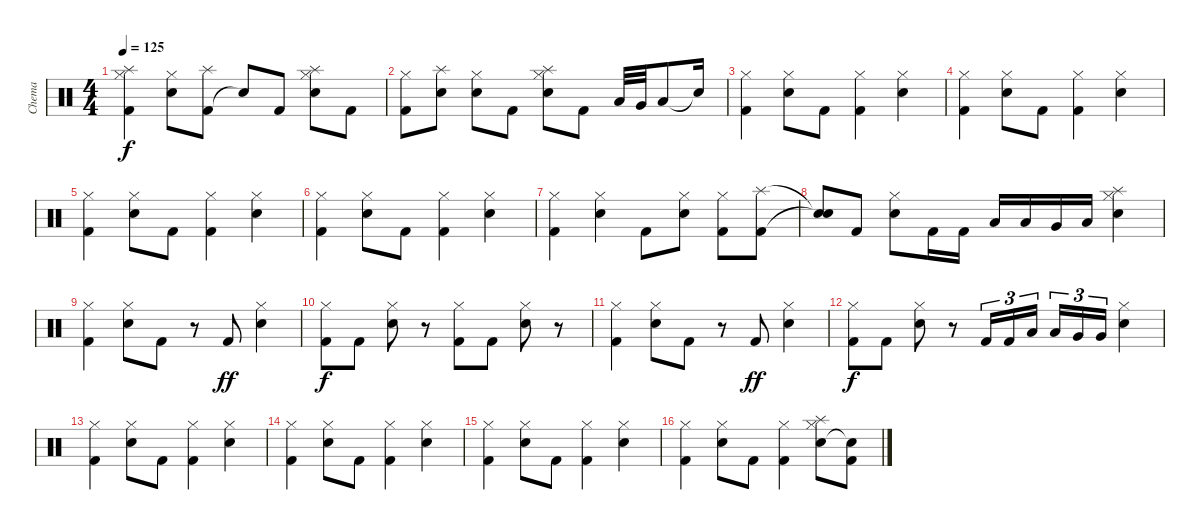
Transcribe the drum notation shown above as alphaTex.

\track ("Chema" "Chema") {instrument percussion}
\staff {score}
\articulation defaults
\ts (4 4)
\tempo 125
\clef neutral
\ks c
("Hi-Hat (closed)" "Kick (hit) 2" "Splash (hit)").4{dy f} ("Hi-Hat (closed)" "Snare (hit) 2").8 ("Kick (hit) 2" "Splash (hit)").8 "Snare (hit)"{t}.8 "Kick (hit) 2".8 ("Hi-Hat (closed)" "Snare (hit) 2" "Splash (hit)").8 "Kick (hit) 2".8 |
("Hi-Hat (closed)" "Kick (hit) 2").8 ("Snare (hit) 2" "Splash (hit)").8 ("Hi-Hat (closed)" "Snare (hit) 2").8 "Kick (hit) 2".8 ("Hi-Hat (closed)" "Snare (hit) 2" "Splash (hit)").8 "Kick (hit) 2".8 "Low Tom (hit)".32 "Very Low Tom (hit)".32 "Low Floor Tom (hit)".8 "Snare (hit)"{t}.16 |
("Hi-Hat (closed)" "Kick (hit) 2").4 ("Hi-Hat (closed)" "Snare (hit) 2").8 "Kick (hit) 2".8 ("Hi-Hat (closed)" "Kick (hit) 2").4 ("Hi-Hat (closed)" "Snare (hit) 2").4 |
("Hi-Hat (closed)" "Kick (hit) 2").4 ("Hi-Hat (closed)" "Snare (hit) 2").8 "Kick (hit) 2".8 ("Hi-Hat (closed)" "Kick (hit) 2").4 ("Hi-Hat (closed)" "Snare (hit) 2").4 |
("Hi-Hat (closed)" "Kick (hit) 2").4 ("Hi-Hat (closed)" "Snare (hit) 2").8 "Kick (hit) 2".8 ("Hi-Hat (closed)" "Kick (hit) 2").4 ("Hi-Hat (closed)" "Snare (hit) 2").4 |
("Hi-Hat (closed)" "Kick (hit) 2").4 ("Hi-Hat (closed)" "Snare (hit) 2").8 "Kick (hit) 2".8 ("Hi-Hat (closed)" "Kick (hit) 2").4 ("Hi-Hat (closed)" "Snare (hit) 2").4 |
("Hi-Hat (closed)" "Kick (hit) 2").4 ("Hi-Hat (closed)" "Snare (hit) 2").4 "Kick (hit) 2".8 ("Hi-Hat (closed)" "Snare (hit) 2").8 ("Hi-Hat (closed)" "Kick (hit) 2").8 ("Kick (hit) 2" "Splash (hit)").8 |
("Snare (hit)"{t} "Snare (hit)"{t}).8 "Kick (hit) 2".8 ("Hi-Hat (closed)" "Snare (hit) 2").8 "Kick (hit) 2".16 "Kick (hit) 2".16 "Low Tom (hit)".16 "Low Tom (hit)".16 "Very Low Tom (hit)".16 "Low Floor Tom (hit)".16 ("Hi-Hat (closed)" "Snare (hit) 2" "Splash (hit)").4 |
("Hi-Hat (closed)" "Kick (hit) 2").4 ("Hi-Hat (closed)" "Snare (hit) 2").8 "Kick (hit) 2".8 r.8 "Kick (hit) 2".8{dy ff} ("Hi-Hat (closed)" "Snare (hit) 2").4 |
("Hi-Hat (closed)" "Kick (hit) 2").8{dy f} "Kick (hit) 2".8 ("Hi-Hat (closed)" "Snare (hit) 2").8 r.8 ("Hi-Hat (closed)" "Kick (hit) 2").8 "Kick (hit) 2".8 ("Hi-Hat (closed)" "Snare (hit) 2").8 r.8 |
("Hi-Hat (closed)" "Kick (hit) 2").4 ("Hi-Hat (closed)" "Snare (hit) 2").8 "Kick (hit) 2".8 r.8 "Kick (hit) 2".8{dy ff} ("Hi-Hat (closed)" "Snare (hit) 2").4 |
("Hi-Hat (closed)" "Kick (hit) 2").8{dy f} "Kick (hit) 2".8 ("Hi-Hat (closed)" "Snare (hit) 2").8 r.8 "Kick (hit) 2".16{tu (3 2)} "Kick (hit) 2".16{tu (3 2)} "Low Tom (hit)".16{tu (3 2)} "Low Tom (hit)".16{tu (3 2)} "Very Low Tom (hit)".16{tu (3 2)} "Very Low Tom (hit)".16{tu (3 2)} ("Hi-Hat (closed)" "Snare (hit) 2").4 |
("Hi-Hat (closed)" "Kick (hit) 2").4 ("Hi-Hat (closed)" "Snare (hit) 2").8 "Kick (hit) 2".8 ("Hi-Hat (closed)" "Kick (hit) 2").4 ("Hi-Hat (closed)" "Snare (hit) 2").4 |
("Hi-Hat (closed)" "Kick (hit) 2").4 ("Hi-Hat (closed)" "Snare (hit) 2").8 "Kick (hit) 2".8 ("Hi-Hat (closed)" "Kick (hit) 2").4 ("Hi-Hat (closed)" "Snare (hit) 2").4 |
("Hi-Hat (closed)" "Kick (hit) 2").4 ("Hi-Hat (closed)" "Snare (hit) 2").8 "Kick (hit) 2".8 ("Hi-Hat (closed)" "Kick (hit) 2").4 ("Hi-Hat (closed)" "Snare (hit) 2").4 |
("Hi-Hat (closed)" "Kick (hit) 2").4 ("Hi-Hat (closed)" "Snare (hit) 2").8 "Kick (hit) 2".8 ("Hi-Hat (closed)" "Kick (hit) 2").4 ("Hi-Hat (closed)" "Snare (hit) 2" "Splash (hit)").8 ("Kick (hit) 2" "Snare (hit)"{t}).8
